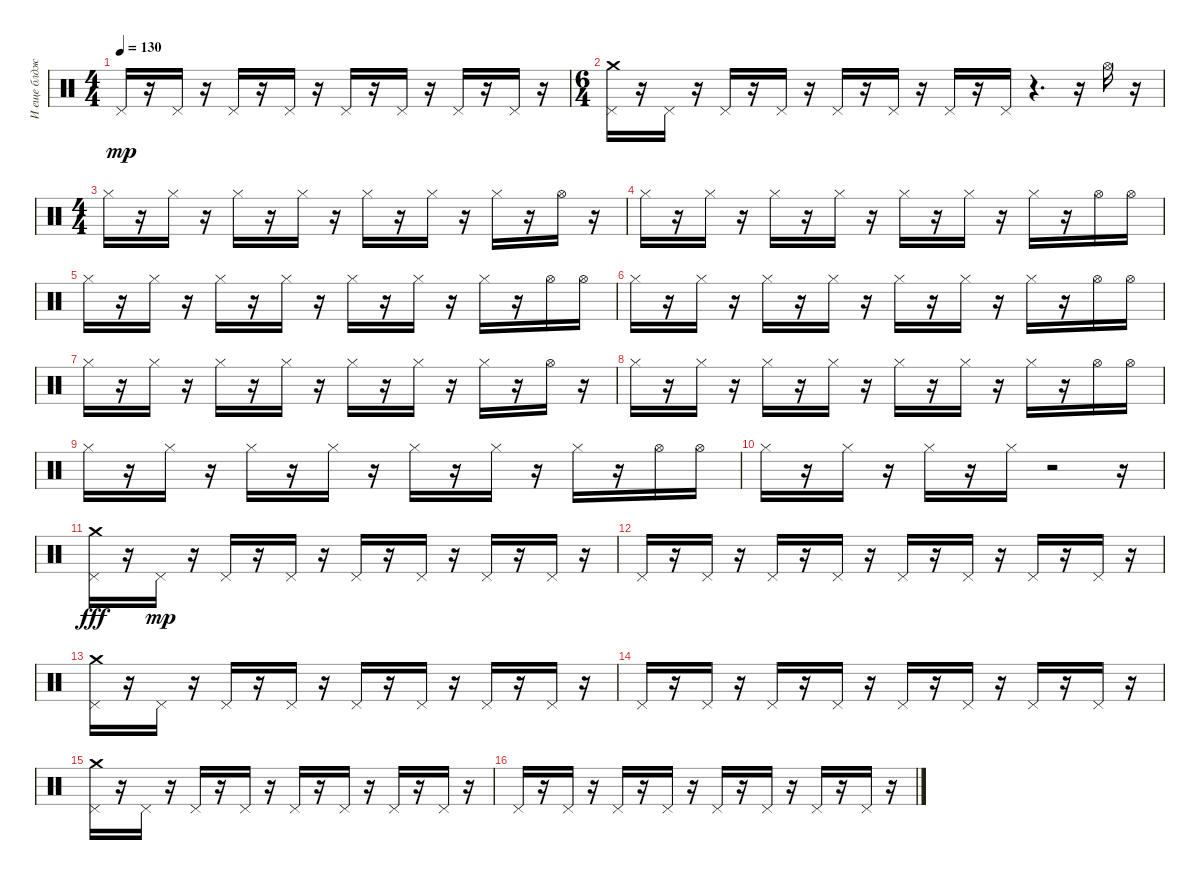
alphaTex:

\track ("И еще блджад" "И еще блдж") {instrument percussion}
\staff {score}
\articulation defaults
\ts (4 4)
\tempo 130
\clef neutral
\ks c "Pedal Hi-Hat (hit)".16{dy mp}
r.16 "Pedal Hi-Hat (hit)".16 r.16 "Pedal Hi-Hat (hit)".16 r.16 "Pedal Hi-Hat (hit)".16 r.16 "Pedal Hi-Hat (hit)".16 r.16 "Pedal Hi-Hat (hit)".16 r.16 "Pedal Hi-Hat (hit)".16 r.16 "Pedal Hi-Hat (hit)".16 r.16 |
\ts (6 4)
("Crash medium (hit)" "Pedal Hi-Hat (hit)").16 r.16 "Pedal Hi-Hat (hit)".16 r.16 "Pedal Hi-Hat (hit)".16 r.16 "Pedal Hi-Hat (hit)".16 r.16 "Pedal Hi-Hat (hit)".16 r.16 "Pedal Hi-Hat (hit)".16 r.16 "Pedal Hi-Hat (hit)".16 r.16 "Pedal Hi-Hat (hit)".16 r.4{d} r.16 "Hi-Hat (open)".16 r.16 |
\ts (4 4)
"Hi-Hat (closed)".16 r.16 "Hi-Hat (closed)".16 r.16 "Hi-Hat (closed)".16 r.16 "Hi-Hat (closed)".16 r.16 "Hi-Hat (closed)".16 r.16 "Hi-Hat (closed)".16 r.16 "Hi-Hat (closed)".16 r.16 "Hi-Hat (open)".16 r.16 |
"Hi-Hat (closed)".16 r.16 "Hi-Hat (closed)".16 r.16 "Hi-Hat (closed)".16 r.16 "Hi-Hat (closed)".16 r.16 "Hi-Hat (closed)".16 r.16 "Hi-Hat (closed)".16 r.16 "Hi-Hat (closed)".16 r.16 "Hi-Hat (open)".16 "Hi-Hat (open)".16 |
"Hi-Hat (closed)".16 r.16 "Hi-Hat (closed)".16 r.16 "Hi-Hat (closed)".16 r.16 "Hi-Hat (closed)".16 r.16 "Hi-Hat (closed)".16 r.16 "Hi-Hat (closed)".16 r.16 "Hi-Hat (closed)".16 r.16 "Hi-Hat (open)".16 "Hi-Hat (open)".16 |
"Hi-Hat (closed)".16 r.16 "Hi-Hat (closed)".16 r.16 "Hi-Hat (closed)".16 r.16 "Hi-Hat (closed)".16 r.16 "Hi-Hat (closed)".16 r.16 "Hi-Hat (closed)".16 r.16 "Hi-Hat (closed)".16 r.16 "Hi-Hat (open)".16 "Hi-Hat (open)".16 |
"Hi-Hat (closed)".16 r.16 "Hi-Hat (closed)".16 r.16 "Hi-Hat (closed)".16 r.16 "Hi-Hat (closed)".16 r.16 "Hi-Hat (closed)".16 r.16 "Hi-Hat (closed)".16 r.16 "Hi-Hat (closed)".16 r.16 "Hi-Hat (open)".16 r.16 |
"Hi-Hat (closed)".16 r.16 "Hi-Hat (closed)".16 r.16 "Hi-Hat (closed)".16 r.16 "Hi-Hat (closed)".16 r.16 "Hi-Hat (closed)".16 r.16 "Hi-Hat (closed)".16 r.16 "Hi-Hat (closed)".16 r.16 "Hi-Hat (open)".16 "Hi-Hat (open)".16 |
"Hi-Hat (closed)".16 r.16 "Hi-Hat (closed)".16 r.16 "Hi-Hat (closed)".16 r.16 "Hi-Hat (closed)".16 r.16 "Hi-Hat (closed)".16 r.16 "Hi-Hat (closed)".16 r.16 "Hi-Hat (closed)".16 r.16 "Hi-Hat (open)".16 "Hi-Hat (open)".16 |
"Hi-Hat (closed)".16 r.16 "Hi-Hat (closed)".16 r.16 "Hi-Hat (closed)".16 r.16 "Hi-Hat (closed)".16 r.2 r.16 |
("Pedal Hi-Hat (hit)" "Crash medium (hit)").16{dy fff} r.16 "Pedal Hi-Hat (hit)".16{dy mp} r.16 "Pedal Hi-Hat (hit)".16 r.16 "Pedal Hi-Hat (hit)".16 r.16 "Pedal Hi-Hat (hit)".16 r.16 "Pedal Hi-Hat (hit)".16 r.16 "Pedal Hi-Hat (hit)".16 r.16 "Pedal Hi-Hat (hit)".16 r.16 |
"Pedal Hi-Hat (hit)".16 r.16 "Pedal Hi-Hat (hit)".16 r.16 "Pedal Hi-Hat (hit)".16 r.16 "Pedal Hi-Hat (hit)".16 r.16 "Pedal Hi-Hat (hit)".16 r.16 "Pedal Hi-Hat (hit)".16 r.16 "Pedal Hi-Hat (hit)".16 r.16 "Pedal Hi-Hat (hit)".16 r.16 |
("Crash medium (hit)" "Pedal Hi-Hat (hit)").16 r.16 "Pedal Hi-Hat (hit)".16 r.16 "Pedal Hi-Hat (hit)".16 r.16 "Pedal Hi-Hat (hit)".16 r.16 "Pedal Hi-Hat (hit)".16 r.16 "Pedal Hi-Hat (hit)".16 r.16 "Pedal Hi-Hat (hit)".16 r.16 "Pedal Hi-Hat (hit)".16 r.16 |
"Pedal Hi-Hat (hit)".16 r.16 "Pedal Hi-Hat (hit)".16 r.16 "Pedal Hi-Hat (hit)".16 r.16 "Pedal Hi-Hat (hit)".16 r.16 "Pedal Hi-Hat (hit)".16 r.16 "Pedal Hi-Hat (hit)".16 r.16 "Pedal Hi-Hat (hit)".16 r.16 "Pedal Hi-Hat (hit)".16 r.16 |
("Crash medium (hit)" "Pedal Hi-Hat (hit)").16 r.16 "Pedal Hi-Hat (hit)".16 r.16 "Pedal Hi-Hat (hit)".16 r.16 "Pedal Hi-Hat (hit)".16 r.16 "Pedal Hi-Hat (hit)".16 r.16 "Pedal Hi-Hat (hit)".16 r.16 "Pedal Hi-Hat (hit)".16 r.16 "Pedal Hi-Hat (hit)".16 r.16 |
"Pedal Hi-Hat (hit)".16 r.16 "Pedal Hi-Hat (hit)".16 r.16 "Pedal Hi-Hat (hit)".16 r.16 "Pedal Hi-Hat (hit)".16 r.16 "Pedal Hi-Hat (hit)".16 r.16 "Pedal Hi-Hat (hit)".16 r.16 "Pedal Hi-Hat (hit)".16 r.16 "Pedal Hi-Hat (hit)".16 r.16
